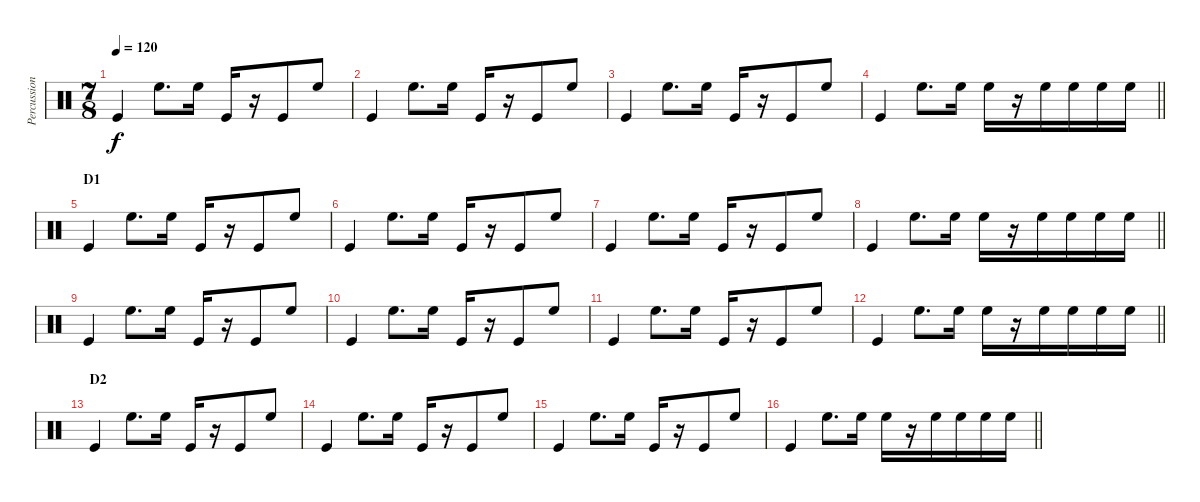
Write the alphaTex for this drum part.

\track ("Percussion" "Percussion") {instrument percussion}
\staff {score}
\articulation defaults
\ts (7 8)
\tempo 120
\clef neutral
\ks c "Kick (hit)".4{dy f} "High Floor Tom (hit)".8{d} "High Floor Tom (hit)".16 "Kick (hit)".16
r.16 "Kick (hit)".8 "High Floor Tom (hit)".8 |
"Kick (hit)".4 "High Floor Tom (hit)".8{d} "High Floor Tom (hit)".16 "Kick (hit)".16 r.16 "Kick (hit)".8 "High Floor Tom (hit)".8 |
"Kick (hit)".4 "High Floor Tom (hit)".8{d} "High Floor Tom (hit)".16 "Kick (hit)".16 r.16 "Kick (hit)".8 "High Floor Tom (hit)".8 |
\barLineRight lightlight "Kick (hit)".4 "High Floor Tom (hit)".8{d} "High Floor Tom (hit)".16 "High Floor Tom (hit)".16
r.16 "High Floor Tom (hit)".16 "High Floor Tom (hit)".16 "High Floor Tom (hit)".16 "High Floor Tom (hit)".16 |
\section ("" "D1")
"Kick (hit)".4 "High Floor Tom (hit)".8{d} "High Floor Tom (hit)".16 "Kick (hit)".16 r.16 "Kick (hit)".8 "High Floor Tom (hit)".8 |
"Kick (hit)".4 "High Floor Tom (hit)".8{d} "High Floor Tom (hit)".16 "Kick (hit)".16 r.16 "Kick (hit)".8 "High Floor Tom (hit)".8 |
"Kick (hit)".4 "High Floor Tom (hit)".8{d} "High Floor Tom (hit)".16 "Kick (hit)".16 r.16 "Kick (hit)".8 "High Floor Tom (hit)".8 |
\barLineRight lightlight "Kick (hit)".4 "High Floor Tom (hit)".8{d} "High Floor Tom (hit)".16 "High Floor Tom (hit)".16
r.16 "High Floor Tom (hit)".16 "High Floor Tom (hit)".16 "High Floor Tom (hit)".16 "High Floor Tom (hit)".16 |
"Kick (hit)".4 "High Floor Tom (hit)".8{d} "High Floor Tom (hit)".16 "Kick (hit)".16 r.16 "Kick (hit)".8 "High Floor Tom (hit)".8 |
"Kick (hit)".4 "High Floor Tom (hit)".8{d} "High Floor Tom (hit)".16 "Kick (hit)".16 r.16 "Kick (hit)".8 "High Floor Tom (hit)".8 |
"Kick (hit)".4 "High Floor Tom (hit)".8{d} "High Floor Tom (hit)".16 "Kick (hit)".16 r.16 "Kick (hit)".8 "High Floor Tom (hit)".8 |
\barLineRight lightlight "Kick (hit)".4 "High Floor Tom (hit)".8{d} "High Floor Tom (hit)".16 "High Floor Tom (hit)".16
r.16 "High Floor Tom (hit)".16 "High Floor Tom (hit)".16 "High Floor Tom (hit)".16 "High Floor Tom (hit)".16 |
\section ("" "D2")
"Kick (hit)".4 "High Floor Tom (hit)".8{d} "High Floor Tom (hit)".16 "Kick (hit)".16 r.16 "Kick (hit)".8 "High Floor Tom (hit)".8 |
"Kick (hit)".4 "High Floor Tom (hit)".8{d} "High Floor Tom (hit)".16 "Kick (hit)".16 r.16 "Kick (hit)".8 "High Floor Tom (hit)".8 |
"Kick (hit)".4 "High Floor Tom (hit)".8{d} "High Floor Tom (hit)".16 "Kick (hit)".16 r.16 "Kick (hit)".8 "High Floor Tom (hit)".8 |
\barLineRight lightlight "Kick (hit)".4 "High Floor Tom (hit)".8{d} "High Floor Tom (hit)".16 "High Floor Tom (hit)".16
r.16 "High Floor Tom (hit)".16 "High Floor Tom (hit)".16 "High Floor Tom (hit)".16 "High Floor Tom (hit)".16
